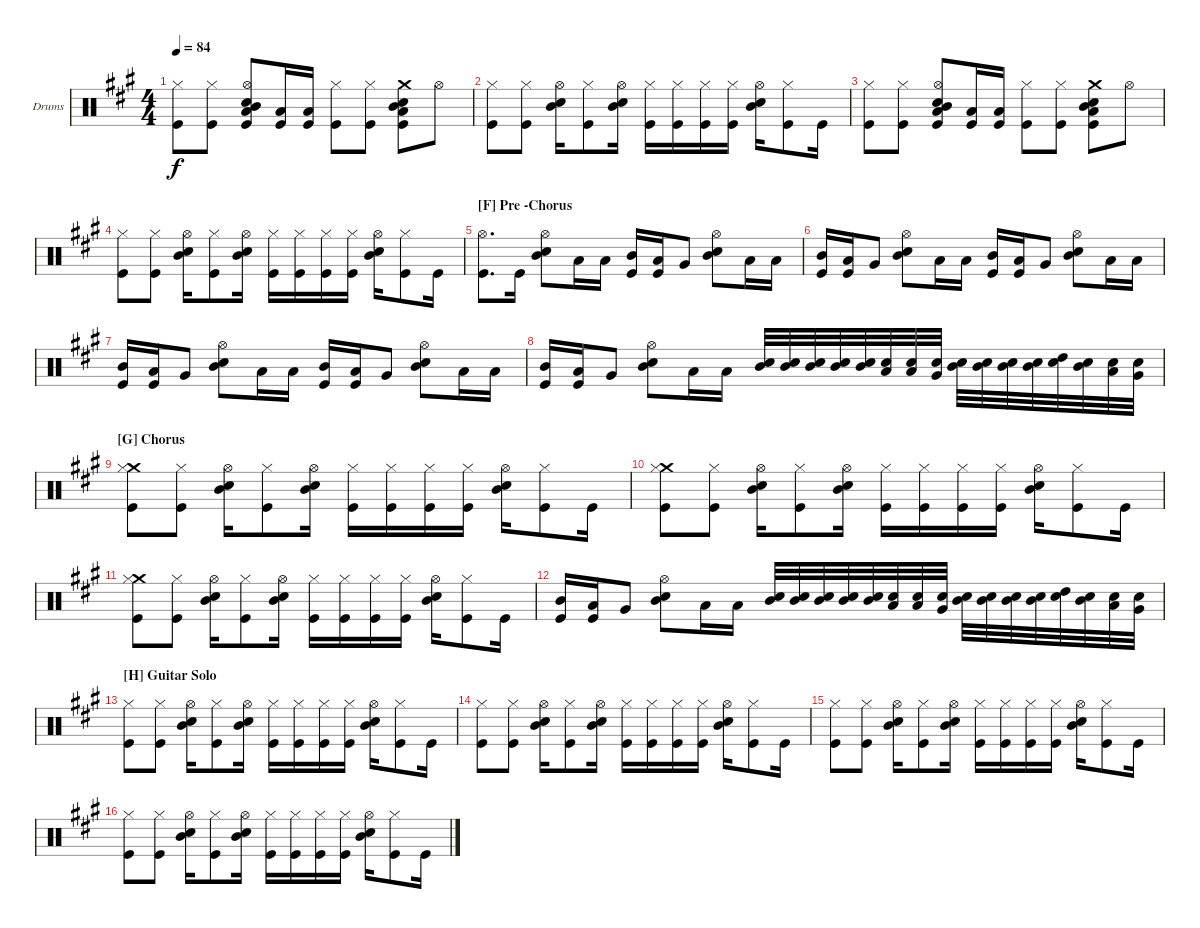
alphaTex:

\defaultSystemsLayout 4
\bracketExtendMode groupsimilarinstruments
\firstSystemTrackNameOrientation horizontal
\otherSystemsTrackNameOrientation horizontal
\track ("Drumkit" "Drums") {instrument percussion}
\staff {score}
\articulation defaults
\ts (4 4)
\tempo 84
\clef neutral
\scale
1.05801
\ks a
("Hi-Hat (closed)" "Kick (hit)").8{dy f} ("Hi-Hat (closed)" "Kick (hit)").8 ("Snare (hit) 2" "Mid Tom (hit)" "Hi-Hat (open)" "Low Tom (hit)" "Kick (hit)").8 ("Low Tom (hit)" "Kick (hit)").16 ("Low Tom (hit)" "Kick (hit)").16 ("Hi-Hat (closed)" "Kick (hit)").8 ("Hi-Hat (closed)" "Kick (hit)").8 ("Snare (hit) 2" "Mid Tom (hit)" "Crash medium (hit)" "Low Tom (hit)" "Kick (hit)").8 "Hi-Hat (open)".8 |
\scale
0.941992 ("Kick (hit)" "Hi-Hat (closed)").8 ("Kick (hit)" "Hi-Hat (closed)").8 ("Snare (hit) 2" "Mid Tom (hit)" "Hi-Hat (open)").16 ("Kick (hit)" "Hi-Hat (closed)").8 ("Snare (hit) 2" "Mid Tom (hit)" "Hi-Hat (open)").16 ("Kick (hit)" "Hi-Hat (closed)").16 ("Kick (hit)" "Hi-Hat (closed)").16 ("Kick (hit)" "Hi-Hat (closed)").16 ("Kick (hit)" "Hi-Hat (closed)").16 ("Snare (hit) 2" "Mid Tom (hit)" "Hi-Hat (open)").16 ("Kick (hit)" "Hi-Hat (closed)").8 "Kick (hit)".16 |
\scale
1.05801 ("Hi-Hat (closed)" "Kick (hit)").8 ("Hi-Hat (closed)" "Kick (hit)").8 ("Snare (hit) 2" "Mid Tom (hit)" "Hi-Hat (open)" "Low Tom (hit)" "Kick (hit)").8 ("Low Tom (hit)" "Kick (hit)").16 ("Low Tom (hit)" "Kick (hit)").16 ("Hi-Hat (closed)" "Kick (hit)").8 ("Hi-Hat (closed)" "Kick (hit)").8 ("Snare (hit) 2" "Mid Tom (hit)" "Crash medium (hit)" "Low Tom (hit)" "Kick (hit)").8 "Hi-Hat (open)".8 |
\scale
0.941992 ("Kick (hit)" "Hi-Hat (closed)").8 ("Kick (hit)" "Hi-Hat (closed)").8 ("Snare (hit) 2" "Mid Tom (hit)" "Hi-Hat (open)").16 ("Kick (hit)" "Hi-Hat (closed)").8 ("Snare (hit) 2" "Mid Tom (hit)" "Hi-Hat (open)").16 ("Kick (hit)" "Hi-Hat (closed)").16 ("Kick (hit)" "Hi-Hat (closed)").16 ("Kick (hit)" "Hi-Hat (closed)").16 ("Kick (hit)" "Hi-Hat (closed)").16 ("Snare (hit) 2" "Mid Tom (hit)" "Hi-Hat (open)").16 ("Kick (hit)" "Hi-Hat (closed)").8 "Kick (hit)".16 |
\section ("F" "Pre -Chorus")
\scale
1.05801 ("Hi-Hat (open)" "Kick (hit)").8{d} "Kick (hit)".16 ("Snare (hit) 2" "Mid Tom (hit)" "Hi-Hat (open)").8 "Low Tom (hit)".16 "Low Tom (hit)".16 ("Mid Tom (hit)" "Kick (hit)").16 ("Low Tom (hit)" "Kick (hit)").16 "Very Low Tom (hit)".8 ("Snare (hit) 2" "Mid Tom (hit)" "Hi-Hat (open)").8 "Low Tom (hit)".16 "Low Tom (hit)".16 |
\scale
0.941992 ("Mid Tom (hit)" "Kick (hit)").16 ("Low Tom (hit)" "Kick (hit)").16 "Very Low Tom (hit)".8 ("Snare (hit) 2" "Mid Tom (hit)" "Hi-Hat (open)").8 "Low Tom (hit)".16 "Low Tom (hit)".16 ("Mid Tom (hit)" "Kick (hit)").16 ("Low Tom (hit)" "Kick (hit)").16 "Very Low Tom (hit)".8 ("Snare (hit) 2" "Mid Tom (hit)" "Hi-Hat (open)").8 "Low Tom (hit)".16 "Low Tom (hit)".16 |
\scale
1.05801 ("Mid Tom (hit)" "Kick (hit)").16 ("Low Tom (hit)" "Kick (hit)").16 "Very Low Tom (hit)".8 ("Snare (hit) 2" "Mid Tom (hit)" "Hi-Hat (open)").8 "Low Tom (hit)".16 "Low Tom (hit)".16 ("Mid Tom (hit)" "Kick (hit)").16 ("Low Tom (hit)" "Kick (hit)").16 "Very Low Tom (hit)".8 ("Snare (hit) 2" "Mid Tom (hit)" "Hi-Hat (open)").8 "Low Tom (hit)".16 "Low Tom (hit)".16 |
\scale
0.941992 ("Mid Tom (hit)" "Kick (hit)").16 ("Low Tom (hit)" "Kick (hit)").16 "Very Low Tom (hit)".8 ("Snare (hit) 2" "Mid Tom (hit)" "Hi-Hat (open)").8 "Low Tom (hit)".16 "Low Tom (hit)".16 ("Mid Tom (hit)" "Snare (hit) 2").32 ("Mid Tom (hit)" "Snare (hit) 2").32 ("Mid Tom (hit)" "Snare (hit) 2").32 ("Mid Tom (hit)" "Snare (hit) 2").32 ("Mid Tom (hit)" "Snare (hit) 2").32 ("Low Tom (hit)" "Snare (hit) 2").32 ("Low Tom (hit)" "Snare (hit) 2").32 ("Very Low Tom (hit)" "Snare (hit) 2").32 ("Mid Tom (hit)" "Snare (hit) 2").32 ("Mid Tom (hit)" "Snare (hit) 2").32 ("Mid Tom (hit)" "Snare (hit) 2").32 ("Mid Tom (hit)" "Snare (hit) 2").32 ("High Tom (hit)" "Snare (hit) 2").32 ("Mid Tom (hit)" "Snare (hit) 2").32 ("Low Tom (hit)" "Snare (hit) 2").32 ("Very Low Tom (hit)" "Snare (hit) 2").32 |
\section ("G" "Chorus")
\scale
1.05801 ("Crash medium (hit)" "Kick (hit)" "Hi-Hat (closed)").8 ("Kick (hit)" "Hi-Hat (closed)").8 ("Snare (hit) 2" "Mid Tom (hit)" "Hi-Hat (open)").16 ("Kick (hit)" "Hi-Hat (closed)").8 ("Snare (hit) 2" "Mid Tom (hit)" "Hi-Hat (open)").16 ("Kick (hit)" "Hi-Hat (closed)").16 ("Kick (hit)" "Hi-Hat (closed)").16 ("Kick (hit)" "Hi-Hat (closed)").16 ("Kick (hit)" "Hi-Hat (closed)").16 ("Snare (hit) 2" "Mid Tom (hit)" "Hi-Hat (open)").16 ("Kick (hit)" "Hi-Hat (closed)").8 "Kick (hit)".16 |
\scale
0.941992 ("Crash medium (hit)" "Kick (hit)" "Hi-Hat (closed)").8 ("Kick (hit)" "Hi-Hat (closed)").8 ("Snare (hit) 2" "Mid Tom (hit)" "Hi-Hat (open)").16 ("Kick (hit)" "Hi-Hat (closed)").8 ("Snare (hit) 2" "Mid Tom (hit)" "Hi-Hat (open)").16 ("Kick (hit)" "Hi-Hat (closed)").16 ("Kick (hit)" "Hi-Hat (closed)").16 ("Kick (hit)" "Hi-Hat (closed)").16 ("Kick (hit)" "Hi-Hat (closed)").16 ("Snare (hit) 2" "Mid Tom (hit)" "Hi-Hat (open)").16 ("Kick (hit)" "Hi-Hat (closed)").8 "Kick (hit)".16 |
\scale
1.05801 ("Crash medium (hit)" "Kick (hit)" "Hi-Hat (closed)").8 ("Kick (hit)" "Hi-Hat (closed)").8 ("Snare (hit) 2" "Mid Tom (hit)" "Hi-Hat (open)").16 ("Kick (hit)" "Hi-Hat (closed)").8 ("Snare (hit) 2" "Mid Tom (hit)" "Hi-Hat (open)").16 ("Kick (hit)" "Hi-Hat (closed)").16 ("Kick (hit)" "Hi-Hat (closed)").16 ("Kick (hit)" "Hi-Hat (closed)").16 ("Kick (hit)" "Hi-Hat (closed)").16 ("Snare (hit) 2" "Mid Tom (hit)" "Hi-Hat (open)").16 ("Kick (hit)" "Hi-Hat (closed)").8 "Kick (hit)".16 |
\scale
0.941992 ("Mid Tom (hit)" "Kick (hit)").16 ("Low Tom (hit)" "Kick (hit)").16 "Very Low Tom (hit)".8 ("Snare (hit) 2" "Mid Tom (hit)" "Hi-Hat (open)").8 "Low Tom (hit)".16 "Low Tom (hit)".16 ("Mid Tom (hit)" "Snare (hit) 2").32 ("Mid Tom (hit)" "Snare (hit) 2").32 ("Mid Tom (hit)" "Snare (hit) 2").32 ("Mid Tom (hit)" "Snare (hit) 2").32 ("Mid Tom (hit)" "Snare (hit) 2").32 ("Low Tom (hit)" "Snare (hit) 2").32 ("Low Tom (hit)" "Snare (hit) 2").32 ("Very Low Tom (hit)" "Snare (hit) 2").32 ("Mid Tom (hit)" "Snare (hit) 2").32 ("Mid Tom (hit)" "Snare (hit) 2").32 ("Mid Tom (hit)" "Snare (hit) 2").32 ("Mid Tom (hit)" "Snare (hit) 2").32 ("High Tom (hit)" "Snare (hit) 2").32 ("Mid Tom (hit)" "Snare (hit) 2").32 ("Low Tom (hit)" "Snare (hit) 2").32 ("Very Low Tom (hit)" "Snare (hit) 2").32 |
\section ("H" "Guitar Solo")
\scale
1.05801 ("Kick (hit)" "Hi-Hat (closed)").8 ("Kick (hit)" "Hi-Hat (closed)").8 ("Snare (hit) 2" "Mid Tom (hit)" "Hi-Hat (open)").16 ("Kick (hit)" "Hi-Hat (closed)").8 ("Snare (hit) 2" "Mid Tom (hit)" "Hi-Hat (open)").16 ("Kick (hit)" "Hi-Hat (closed)").16 ("Kick (hit)" "Hi-Hat (closed)").16 ("Kick (hit)" "Hi-Hat (closed)").16 ("Kick (hit)" "Hi-Hat (closed)").16 ("Snare (hit) 2" "Mid Tom (hit)" "Hi-Hat (open)").16 ("Kick (hit)" "Hi-Hat (closed)").8 "Kick (hit)".16 |
\scale
0.941992 ("Kick (hit)" "Hi-Hat (closed)").8 ("Kick (hit)" "Hi-Hat (closed)").8 ("Snare (hit) 2" "Mid Tom (hit)" "Hi-Hat (open)").16 ("Kick (hit)" "Hi-Hat (closed)").8 ("Snare (hit) 2" "Mid Tom (hit)" "Hi-Hat (open)").16 ("Kick (hit)" "Hi-Hat (closed)").16 ("Kick (hit)" "Hi-Hat (closed)").16 ("Kick (hit)" "Hi-Hat (closed)").16 ("Kick (hit)" "Hi-Hat (closed)").16 ("Snare (hit) 2" "Mid Tom (hit)" "Hi-Hat (open)").16 ("Kick (hit)" "Hi-Hat (closed)").8 "Kick (hit)".16 |
\scale
1.05801 ("Kick (hit)" "Hi-Hat (closed)").8 ("Kick (hit)" "Hi-Hat (closed)").8 ("Snare (hit) 2" "Mid Tom (hit)" "Hi-Hat (open)").16 ("Kick (hit)" "Hi-Hat (closed)").8 ("Snare (hit) 2" "Mid Tom (hit)" "Hi-Hat (open)").16 ("Kick (hit)" "Hi-Hat (closed)").16 ("Kick (hit)" "Hi-Hat (closed)").16 ("Kick (hit)" "Hi-Hat (closed)").16 ("Kick (hit)" "Hi-Hat (closed)").16 ("Snare (hit) 2" "Mid Tom (hit)" "Hi-Hat (open)").16 ("Kick (hit)" "Hi-Hat (closed)").8 "Kick (hit)".16 |
\scale
0.941992 ("Kick (hit)" "Hi-Hat (closed)").8 ("Kick (hit)" "Hi-Hat (closed)").8 ("Snare (hit) 2" "Mid Tom (hit)" "Hi-Hat (open)").16 ("Kick (hit)" "Hi-Hat (closed)").8 ("Snare (hit) 2" "Mid Tom (hit)" "Hi-Hat (open)").16 ("Kick (hit)" "Hi-Hat (closed)").16 ("Kick (hit)" "Hi-Hat (closed)").16 ("Kick (hit)" "Hi-Hat (closed)").16 ("Kick (hit)" "Hi-Hat (closed)").16 ("Snare (hit) 2" "Mid Tom (hit)" "Hi-Hat (open)").16 ("Kick (hit)" "Hi-Hat (closed)").8 "Kick (hit)".16
